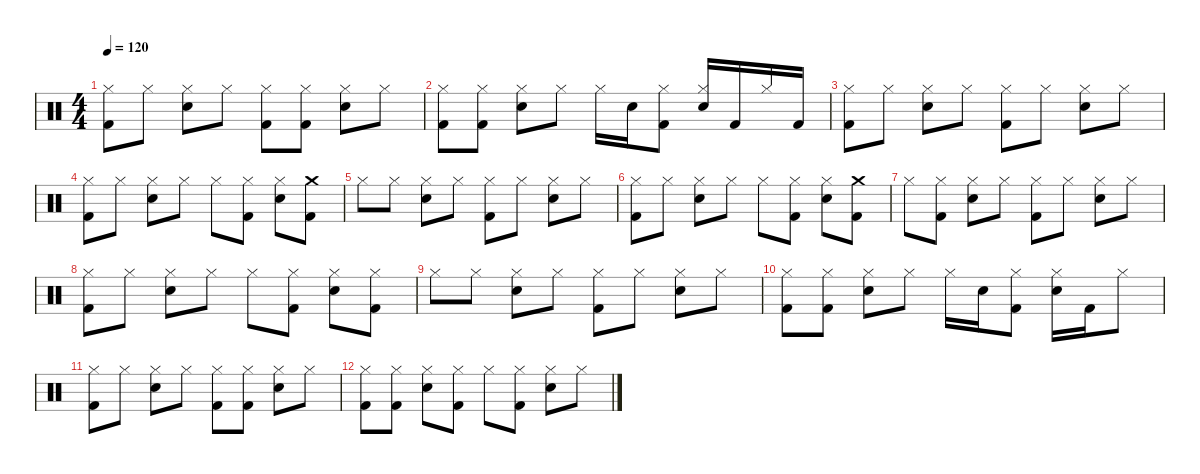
\defaultSystemsLayout 4
\hideDynamics
\bracketExtendMode nobrackets
\singleTrackTrackNamePolicy hidden
\multiTrackTrackNamePolicy hidden
\otherSystemsTrackNameOrientation horizontal
\track ("Percussions" "drm.") {instrument percussion}
\staff {score}
\articulation defaults
\ts (4 4)
\tempo 120
\clef neutral
\ks c
("Hi-Hat (closed)" "Kick (hit) 2").8{dy f beam Down} "Hi-Hat (closed)".8{beam Down} ("Hi-Hat (closed)" "Snare (hit) 2").8{beam Down} "Hi-Hat (closed)".8{beam Down} ("Hi-Hat (closed)" "Kick (hit) 2").8{beam Down} ("Hi-Hat (closed)" "Kick (hit) 2").8{beam Down} ("Hi-Hat (closed)" "Snare (hit) 2").8{beam Down} "Hi-Hat (closed)".8{beam Down} |
("Hi-Hat (closed)" "Kick (hit) 2").8{beam Down} ("Hi-Hat (closed)" "Kick (hit) 2").8{beam Down} ("Hi-Hat (closed)" "Snare (hit) 2").8{beam Down} "Hi-Hat (closed)".8{beam Down} "Hi-Hat (closed)".16{beam Down} "Snare (hit) 2".16{beam Down} ("Hi-Hat (closed)" "Kick (hit) 2").8{beam Down} ("Hi-Hat (closed)" "Snare (hit) 2").16{beam Up} "Kick (hit) 2".16{beam Up} "Hi-Hat (closed)".16{beam Up} "Kick (hit) 2".16{beam Up} |
("Hi-Hat (closed)" "Kick (hit) 2").8{beam Down} "Hi-Hat (closed)".8{beam Down} ("Hi-Hat (closed)" "Snare (hit) 2").8{beam Down} "Hi-Hat (closed)".8{beam Down} ("Hi-Hat (closed)" "Kick (hit) 2").8{beam Down} "Hi-Hat (closed)".8{beam Down} ("Hi-Hat (closed)" "Snare (hit) 2").8{beam Down} "Hi-Hat (closed)".8{beam Down} |
("Hi-Hat (closed)" "Kick (hit) 2").8{beam Down} "Hi-Hat (closed)".8{beam Down} ("Hi-Hat (closed)" "Snare (hit) 2").8{beam Down} "Hi-Hat (closed)".8{beam Down} "Hi-Hat (closed)".8{beam Down} ("Hi-Hat (closed)" "Kick (hit) 2").8{beam Down} ("Hi-Hat (closed)" "Snare (hit) 2").8{beam Down} ("Crash medium (hit)" "Kick (hit) 2").8{beam Down} |
"Hi-Hat (closed)".8{beam Down} "Hi-Hat (closed)".8{beam Down} ("Hi-Hat (closed)" "Snare (hit) 2").8{beam Down} "Hi-Hat (closed)".8{beam Down} ("Hi-Hat (closed)" "Kick (hit) 2").8{beam Down} "Hi-Hat (closed)".8{beam Down} ("Hi-Hat (closed)" "Snare (hit) 2").8{beam Down} "Hi-Hat (closed)".8{beam Down} |
("Hi-Hat (closed)" "Kick (hit) 2").8{beam Down} "Hi-Hat (closed)".8{beam Down} ("Hi-Hat (closed)" "Snare (hit) 2").8{beam Down} "Hi-Hat (closed)".8{beam Down} "Hi-Hat (closed)".8{beam Down} ("Hi-Hat (closed)" "Kick (hit) 2").8{beam Down} ("Hi-Hat (closed)" "Snare (hit) 2").8{beam Down} ("Crash medium (hit)" "Kick (hit) 2").8{beam Down} |
"Hi-Hat (closed)".8{beam Down} ("Hi-Hat (closed)" "Kick (hit) 2").8{beam Down} ("Hi-Hat (closed)" "Snare (hit) 2").8{beam Down} "Hi-Hat (closed)".8{beam Down} ("Hi-Hat (closed)" "Kick (hit) 2").8{beam Down} "Hi-Hat (closed)".8{beam Down} ("Hi-Hat (closed)" "Snare (hit) 2").8{beam Down} "Hi-Hat (closed)".8{beam Down} |
("Hi-Hat (closed)" "Kick (hit) 2").8{beam Down} "Hi-Hat (closed)".8{beam Down} ("Hi-Hat (closed)" "Snare (hit) 2").8{beam Down} "Hi-Hat (closed)".8{beam Down} "Hi-Hat (closed)".8{beam Down} ("Hi-Hat (closed)" "Kick (hit) 2").8{beam Down} ("Hi-Hat (closed)" "Snare (hit) 2").8{beam Down} ("Hi-Hat (closed)" "Kick (hit) 2").8{beam Down} |
"Hi-Hat (closed)".8{beam Down} "Hi-Hat (closed)".8{beam Down} ("Hi-Hat (closed)" "Snare (hit) 2").8{beam Down} "Hi-Hat (closed)".8{beam Down} ("Hi-Hat (closed)" "Kick (hit) 2").8{beam Down} "Hi-Hat (closed)".8{beam Down} ("Hi-Hat (closed)" "Snare (hit) 2").8{beam Down} "Hi-Hat (closed)".8{beam Down} |
("Hi-Hat (closed)" "Kick (hit) 2").8{beam Down} ("Hi-Hat (closed)" "Kick (hit) 2").8{beam Down} ("Hi-Hat (closed)" "Snare (hit) 2").8{beam Down} "Hi-Hat (closed)".8{beam Down} "Hi-Hat (closed)".16{beam Down} "Snare (hit) 2".16{beam Down} ("Hi-Hat (closed)" "Kick (hit) 2").8{beam Down} ("Hi-Hat (closed)" "Snare (hit) 2").16{beam Down} "Kick (hit) 2".16{beam Down} "Hi-Hat (closed)".8{beam Down} |
("Hi-Hat (closed)" "Kick (hit) 2").8{beam Down} "Hi-Hat (closed)".8{beam Down} ("Hi-Hat (closed)" "Snare (hit) 2").8{beam Down} "Hi-Hat (closed)".8{beam Down} ("Hi-Hat (closed)" "Kick (hit) 2").8{beam Down} ("Hi-Hat (closed)" "Kick (hit) 2").8{beam Down} ("Hi-Hat (closed)" "Snare (hit) 2").8{beam Down} "Hi-Hat (closed)".8{beam Down} |
("Hi-Hat (closed)" "Kick (hit) 2").8{beam Down} ("Hi-Hat (closed)" "Kick (hit) 2").8{beam Down} ("Hi-Hat (closed)" "Snare (hit) 2").8{beam Down} ("Hi-Hat (closed)" "Kick (hit) 2").8{beam Down} "Hi-Hat (closed)".8{beam Down} ("Hi-Hat (closed)" "Kick (hit) 2").8{beam Down} ("Hi-Hat (closed)" "Snare (hit) 2").8{beam Down} "Hi-Hat (closed)".8{beam Down}
